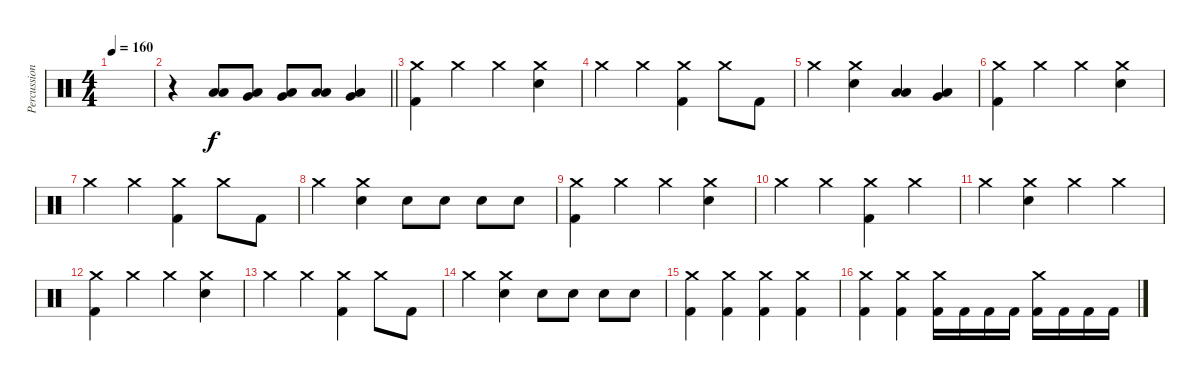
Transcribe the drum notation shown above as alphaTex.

\track ("Percussions" "Percussion") {instrument percussion}
\staff {score}
\articulation defaults
\ts (4 4)
\tempo 160
\clef neutral
\ks c
|
\barLineRight lightlight
r.4 ("Low Floor Tom (hit)" "Low Tom (hit)").8 ("Very Low Tom (hit)" "Low Floor Tom (hit)").8 ("Very Low Tom (hit)" "Low Floor Tom (hit)").8 ("Low Floor Tom (hit)" "Low Floor Tom (hit)").8 ("Low Tom (hit)" "Very Low Tom (hit)").4 |
("Crash medium (hit)" "Kick (hit) 2").4 "Crash medium (hit)".4 "Crash medium (hit)".4 ("Crash medium (hit)" "Electric Snare (hit)").4 |
"Crash medium (hit)".4 "Crash medium (hit)".4 ("Crash medium (hit)" "Kick (hit) 2").4 "Crash medium (hit)".8 "Kick (hit) 2".8 |
"Crash medium (hit)".4 ("Crash medium (hit)" "Electric Snare (hit)").4 ("Low Floor Tom (hit)" "Low Tom (hit)").4 ("Low Floor Tom (hit)" "Very Low Tom (hit)").4 |
("Crash medium (hit)" "Kick (hit) 2").4 "Crash medium (hit)".4 "Crash medium (hit)".4 ("Crash medium (hit)" "Electric Snare (hit)").4 |
"Crash medium (hit)".4 "Crash medium (hit)".4 ("Crash medium (hit)" "Kick (hit) 2").4 "Crash medium (hit)".8 "Kick (hit) 2".8 |
"Crash medium (hit)".4 ("Crash medium (hit)" "Electric Snare (hit)").4 "Electric Snare (hit)".8 "Electric Snare (hit)".8 "Electric Snare (hit)".8 "Electric Snare (hit)".8 |
("Crash medium (hit)" "Kick (hit) 2").4 "Crash medium (hit)".4 "Crash medium (hit)".4 ("Crash medium (hit)" "Electric Snare (hit)").4 |
"Crash medium (hit)".4 "Crash medium (hit)".4 ("Crash medium (hit)" "Kick (hit) 2").4 "Crash medium (hit)".4 |
"Crash medium (hit)".4 ("Crash medium (hit)" "Electric Snare (hit)").4 "Crash medium (hit)".4 "Crash medium (hit)".4 |
("Crash medium (hit)" "Kick (hit) 2").4 "Crash medium (hit)".4 "Crash medium (hit)".4 ("Crash medium (hit)" "Electric Snare (hit)").4 |
"Crash medium (hit)".4 "Crash medium (hit)".4 ("Crash medium (hit)" "Kick (hit) 2").4 "Crash medium (hit)".8 "Kick (hit) 2".8 |
"Crash medium (hit)".4 ("Crash medium (hit)" "Electric Snare (hit)").4 "Electric Snare (hit)".8 "Electric Snare (hit)".8 "Electric Snare (hit)".8 "Electric Snare (hit)".8 |
("Crash medium (hit)" "Kick (hit) 2").4 ("Crash medium (hit)" "Kick (hit) 2").4 ("Crash medium (hit)" "Kick (hit) 2").4 ("Crash medium (hit)" "Kick (hit) 2").4 |
("Crash medium (hit)" "Kick (hit) 2").4 ("Crash medium (hit)" "Kick (hit) 2").4 ("Crash medium (hit)" "Kick (hit) 2").16 "Kick (hit) 2".16 "Kick (hit) 2".16 "Kick (hit) 2".16 ("Crash medium (hit)" "Kick (hit) 2").16 "Kick (hit) 2".16 "Kick (hit) 2".16 "Kick (hit) 2".16
